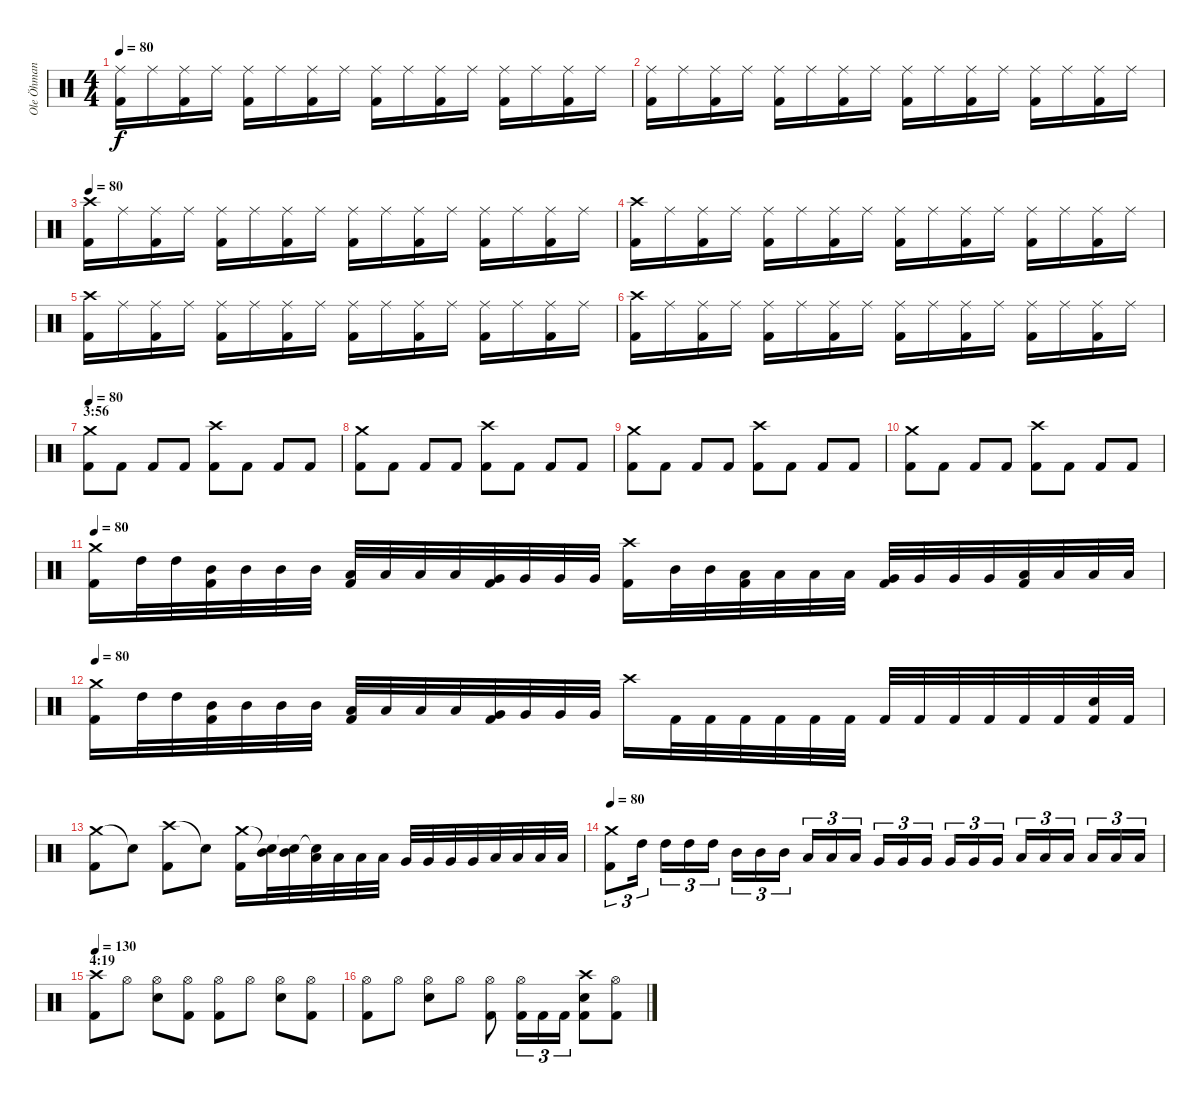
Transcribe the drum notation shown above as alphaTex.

\track ("Ole Öhman" "Ole Öhman") {instrument percussion}
\staff {score}
\articulation defaults
\ts (4 4)
\tempo 80
\clef neutral
\ks c
("Ride (middle)" "Kick (hit) 2").16{dy f} "Ride (middle)".16 ("Ride (middle)" "Kick (hit) 2").16 "Ride (middle)".16 ("Ride (middle)" "Kick (hit) 2").16 "Ride (middle)".16 ("Ride (middle)" "Kick (hit) 2").16 "Ride (middle)".16 ("Ride (middle)" "Kick (hit) 2").16 "Ride (middle)".16 ("Ride (middle)" "Kick (hit) 2").16 "Ride (middle)".16 ("Ride (middle)" "Kick (hit) 2").16 "Ride (middle)".16 ("Ride (middle)" "Kick (hit) 2").16 "Ride (middle)".16 |
("Ride (middle)" "Kick (hit) 2").16 "Ride (middle)".16 ("Ride (middle)" "Kick (hit) 2").16 "Ride (middle)".16 ("Ride (middle)" "Kick (hit) 2").16 "Ride (middle)".16 ("Ride (middle)" "Kick (hit) 2").16 "Ride (middle)".16 ("Ride (middle)" "Kick (hit) 2").16 "Ride (middle)".16 ("Ride (middle)" "Kick (hit) 2").16 "Ride (middle)".16 ("Ride (middle)" "Kick (hit) 2").16 "Ride (middle)".16 ("Ride (middle)" "Kick (hit) 2").16 "Ride (middle)".16 |
\tempo 80
("Crash high (hit)" "Kick (hit) 2").16 "Ride (middle)".16 ("Ride (middle)" "Kick (hit) 2").16 "Ride (middle)".16 ("Ride (middle)" "Kick (hit) 2").16 "Ride (middle)".16 ("Ride (middle)" "Kick (hit) 2").16 "Ride (middle)".16 ("Ride (middle)" "Kick (hit) 2").16 "Ride (middle)".16 ("Ride (middle)" "Kick (hit) 2").16 "Ride (middle)".16 ("Ride (middle)" "Kick (hit) 2").16 "Ride (middle)".16 ("Ride (middle)" "Kick (hit) 2").16 "Ride (middle)".16 |
("Crash high (hit)" "Kick (hit) 2").16 "Ride (middle)".16 ("Ride (middle)" "Kick (hit) 2").16 "Ride (middle)".16 ("Ride (middle)" "Kick (hit) 2").16 "Ride (middle)".16 ("Ride (middle)" "Kick (hit) 2").16 "Ride (middle)".16 ("Ride (middle)" "Kick (hit) 2").16 "Ride (middle)".16 ("Ride (middle)" "Kick (hit) 2").16 "Ride (middle)".16 ("Ride (middle)" "Kick (hit) 2").16 "Ride (middle)".16 ("Ride (middle)" "Kick (hit) 2").16 "Ride (middle)".16 |
("Crash high (hit)" "Kick (hit) 2").16 "Ride (middle)".16 ("Ride (middle)" "Kick (hit) 2").16 "Ride (middle)".16 ("Ride (middle)" "Kick (hit) 2").16 "Ride (middle)".16 ("Ride (middle)" "Kick (hit) 2").16 "Ride (middle)".16 ("Ride (middle)" "Kick (hit) 2").16 "Ride (middle)".16 ("Ride (middle)" "Kick (hit) 2").16 "Ride (middle)".16 ("Ride (middle)" "Kick (hit) 2").16 "Ride (middle)".16 ("Ride (middle)" "Kick (hit) 2").16 "Ride (middle)".16 |
("Crash high (hit)" "Kick (hit) 2").16 "Ride (middle)".16 ("Ride (middle)" "Kick (hit) 2").16 "Ride (middle)".16 ("Ride (middle)" "Kick (hit) 2").16 "Ride (middle)".16 ("Ride (middle)" "Kick (hit) 2").16 "Ride (middle)".16 ("Ride (middle)" "Kick (hit) 2").16 "Ride (middle)".16 ("Ride (middle)" "Kick (hit) 2").16 "Ride (middle)".16 ("Ride (middle)" "Kick (hit) 2").16 "Ride (middle)".16 ("Ride (middle)" "Kick (hit) 2").16 "Ride (middle)".16 |
\section ("" "3:56")
\tempo 80
("Crash medium (hit)" "Kick (hit) 2").8 "Kick (hit) 2".8 "Kick (hit) 2".8 "Kick (hit) 2".8 ("Crash high (hit)" "Kick (hit) 2").8 "Kick (hit) 2".8 "Kick (hit) 2".8 "Kick (hit) 2".8 |
("Crash medium (hit)" "Kick (hit) 2").8 "Kick (hit) 2".8 "Kick (hit) 2".8 "Kick (hit) 2".8 ("Crash high (hit)" "Kick (hit) 2").8 "Kick (hit) 2".8 "Kick (hit) 2".8 "Kick (hit) 2".8 |
("Crash medium (hit)" "Kick (hit) 2").8 "Kick (hit) 2".8 "Kick (hit) 2".8 "Kick (hit) 2".8 ("Crash high (hit)" "Kick (hit) 2").8 "Kick (hit) 2".8 "Kick (hit) 2".8 "Kick (hit) 2".8 |
("Crash medium (hit)" "Kick (hit) 2").8 "Kick (hit) 2".8 "Kick (hit) 2".8 "Kick (hit) 2".8 ("Crash high (hit)" "Kick (hit) 2").8 "Kick (hit) 2".8 "Kick (hit) 2".8 "Kick (hit) 2".8 |
\tempo 80
("Crash medium (hit)" "Kick (hit) 2").16 "High Tom (hit)".32 "High Tom (hit)".32 ("Mid Tom (hit)" "Kick (hit) 2").32 "Mid Tom (hit)".32 "Mid Tom (hit)".32 "Mid Tom (hit)".32 ("Low Tom (hit)" "Kick (hit) 2").32 "Low Tom (hit)".32 "Low Tom (hit)".32 "Low Tom (hit)".32 ("Very Low Tom (hit)" "Kick (hit) 2").32 "Very Low Tom (hit)".32 "Very Low Tom (hit)".32 "Very Low Tom (hit)".32 ("Crash high (hit)" "Kick (hit) 2").16 "Mid Tom (hit)".32 "Mid Tom (hit)".32 ("Low Tom (hit)" "Kick (hit) 2").32 "Low Tom (hit)".32 "Low Tom (hit)".32 "Low Tom (hit)".32 ("Very Low Tom (hit)" "Kick (hit) 2").32 "Very Low Tom (hit)".32 "Very Low Tom (hit)".32 "Very Low Tom (hit)".32 ("Low Floor Tom (hit)" "Kick (hit) 2").32 "Low Floor Tom (hit)".32 "Low Floor Tom (hit)".32 "Low Floor Tom (hit)".32 |
\tempo 80
("Crash medium (hit)" "Kick (hit) 2").16 "High Tom (hit)".32 "High Tom (hit)".32 ("Mid Tom (hit)" "Kick (hit) 2").32 "Mid Tom (hit)".32 "Mid Tom (hit)".32 "Mid Tom (hit)".32 ("Low Tom (hit)" "Kick (hit) 2").32 "Low Tom (hit)".32 "Low Tom (hit)".32 "Low Tom (hit)".32 ("Very Low Tom (hit)" "Kick (hit) 2").32 "Very Low Tom (hit)".32 "Very Low Tom (hit)".32 "Very Low Tom (hit)".32 "Crash high (hit)".16 "Kick (hit) 2".32 "Kick (hit) 2".32 "Kick (hit) 2".32 "Kick (hit) 2".32 "Kick (hit) 2".32 "Kick (hit) 2".32 "Kick (hit) 2".32 "Kick (hit) 2".32 "Kick (hit) 2".32 "Kick (hit) 2".32 "Kick (hit) 2".32 "Kick (hit) 2".32 ("Electric Snare (hit)" "Kick (hit) 2").32 "Kick (hit) 2".32 |
("Crash medium (hit)" "Kick (hit) 2").8 "Snare (hit)"{t}.8 ("Crash high (hit)" "Kick (hit) 2").8 "Snare (hit)"{t}.8 ("Crash medium (hit)" "Kick (hit) 2").16 ("Snare (hit)"{t} "Mid Tom (hit)").32 ("Snare (hit)"{t} "Mid Tom (hit)").32 ("Snare (hit)"{t} "Low Tom (hit)").32 "Low Tom (hit)".32 "Low Tom (hit)".32 "Low Tom (hit)".32 "Very Low Tom (hit)".32 "Very Low Tom (hit)".32 "Very Low Tom (hit)".32 "Very Low Tom (hit)".32 "Low Floor Tom (hit)".32 "Low Floor Tom (hit)".32 "Low Floor Tom (hit)".32 "Low Floor Tom (hit)".32 |
\tempo 80
("Crash medium (hit)" "Kick (hit) 2").8{tu (3 2)} "High Tom (hit)".16{tu (3 2)} "High Tom (hit)".16{tu (3 2)} "High Tom (hit)".16{tu (3 2)} "High Tom (hit)".16{tu (3 2)} "Mid Tom (hit)".16{tu (3 2)} "Mid Tom (hit)".16{tu (3 2)} "Mid Tom (hit)".16{tu (3 2)} "Low Tom (hit)".16{tu (3 2)} "Low Tom (hit)".16{tu (3 2)} "Low Tom (hit)".16{tu (3 2)} "Very Low Tom (hit)".16{tu (3 2)} "Very Low Tom (hit)".16{tu (3 2)} "Very Low Tom (hit)".16{tu (3 2)} "Very Low Tom (hit)".16{tu (3 2)} "Very Low Tom (hit)".16{tu (3 2)} "Very Low Tom (hit)".16{tu (3 2)} "Low Floor Tom (hit)".16{tu (3 2)} "Low Floor Tom (hit)".16{tu (3 2)} "Low Floor Tom (hit)".16{tu (3 2)} "Low Floor Tom (hit)".16{tu (3 2)} "Low Floor Tom (hit)".16{tu (3 2)} "Low Floor Tom (hit)".16{tu (3 2)} |
\section ("" "4:19")
\tempo 130
("Crash high (hit)" "Kick (hit) 2").8 "Hi-Hat (open)".8 ("Hi-Hat (open)" "Electric Snare (hit)").8 ("Hi-Hat (open)" "Kick (hit) 2").8 ("Hi-Hat (open)" "Kick (hit) 2").8 "Hi-Hat (open)".8 ("Hi-Hat (open)" "Electric Snare (hit)").8 ("Hi-Hat (open)" "Kick (hit) 2").8 |
("Hi-Hat (open)" "Kick (hit) 2").8 "Hi-Hat (open)".8 ("Hi-Hat (open)" "Electric Snare (hit)").8 "Hi-Hat (open)".8 ("Hi-Hat (open)" "Kick (hit) 2").8 ("Hi-Hat (open)" "Kick (hit) 2").16{tu (3 2)} "Kick (hit) 2".16{tu (3 2)} "Kick (hit) 2".16{tu (3 2)} ("Crash high (hit)" "Electric Snare (hit)" "Kick (hit) 2").8 ("Hi-Hat (open)" "Kick (hit) 2").8
